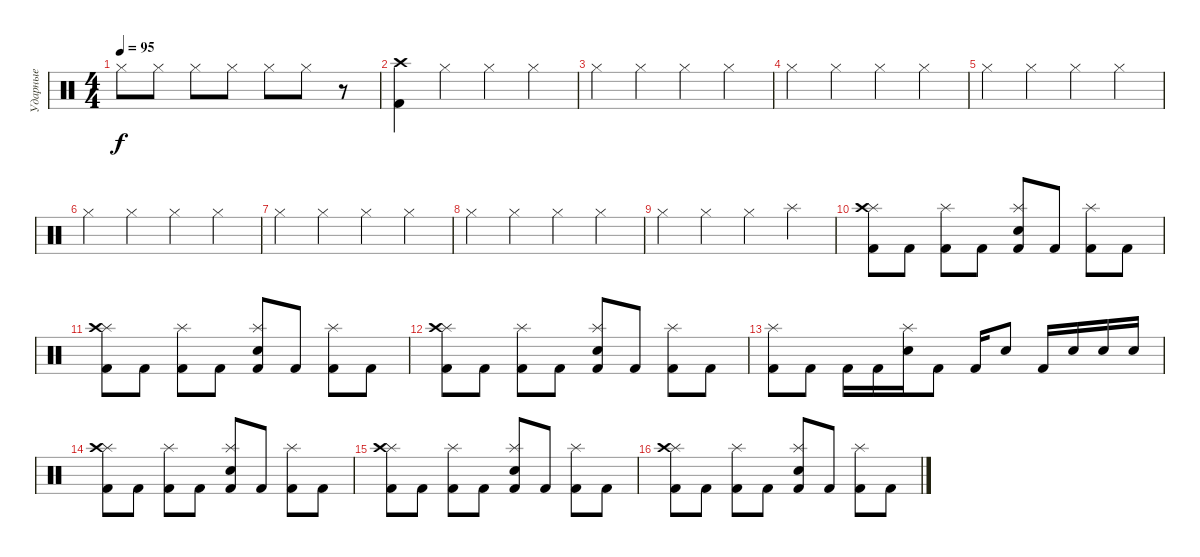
\track ("Ударные" "Ударные") {instrument percussion}
\staff {score}
\articulation defaults
\ts (4 4)
\tempo 95
\clef neutral
\ks c "Hi-Hat (closed)".8{dy f} "Hi-Hat (closed)".8 "Hi-Hat (closed)".8 "Hi-Hat (closed)".8 "Hi-Hat (closed)".8 "Hi-Hat (closed)".8
r.8 |
("Crash high (hit)" "Kick (hit) 2").4 "Hi-Hat (closed)".4 "Hi-Hat (closed)".4 "Hi-Hat (closed)".4 |
"Hi-Hat (closed)".4 "Hi-Hat (closed)".4 "Hi-Hat (closed)".4 "Hi-Hat (closed)".4 |
"Hi-Hat (closed)".4 "Hi-Hat (closed)".4 "Hi-Hat (closed)".4 "Hi-Hat (closed)".4 |
"Hi-Hat (closed)".4 "Hi-Hat (closed)".4 "Hi-Hat (closed)".4 "Hi-Hat (closed)".4 |
"Hi-Hat (closed)".4 "Hi-Hat (closed)".4 "Hi-Hat (closed)".4 "Hi-Hat (closed)".4 |
"Hi-Hat (closed)".4 "Hi-Hat (closed)".4 "Hi-Hat (closed)".4 "Hi-Hat (closed)".4 |
"Hi-Hat (closed)".4 "Hi-Hat (closed)".4 "Hi-Hat (closed)".4 "Hi-Hat (closed)".4 |
"Hi-Hat (closed)".4 "Hi-Hat (closed)".4 "Hi-Hat (closed)".4 "Splash (hit)".4 |
("Splash (hit)" "Crash high (hit)" "Kick (hit) 2").8 "Kick (hit) 2".8 ("Splash (hit)" "Kick (hit) 2").8 "Kick (hit) 2".8 ("Splash (hit)" "Electric Snare (hit)" "Kick (hit) 2").8 "Kick (hit) 2".8 ("Splash (hit)" "Kick (hit) 2").8 "Kick (hit) 2".8 |
("Splash (hit)" "Crash high (hit)" "Kick (hit) 2").8 "Kick (hit) 2".8 ("Splash (hit)" "Kick (hit) 2").8 "Kick (hit) 2".8 ("Splash (hit)" "Electric Snare (hit)" "Kick (hit) 2").8 "Kick (hit) 2".8 ("Splash (hit)" "Kick (hit) 2").8 "Kick (hit) 2".8 |
("Splash (hit)" "Crash high (hit)" "Kick (hit) 2").8 "Kick (hit) 2".8 ("Splash (hit)" "Kick (hit) 2").8 "Kick (hit) 2".8 ("Splash (hit)" "Electric Snare (hit)" "Kick (hit) 2").8 "Kick (hit) 2".8 ("Splash (hit)" "Kick (hit) 2").8 "Kick (hit) 2".8 |
("Splash (hit)" "Kick (hit) 2").8 "Kick (hit) 2".8 "Kick (hit) 2".16 "Kick (hit) 2".16 ("Splash (hit)" "Electric Snare (hit)").16 "Kick (hit) 2".8 "Kick (hit) 2".16 "Electric Snare (hit)".8 "Kick (hit) 2".16 "Electric Snare (hit)".16 "Electric Snare (hit)".16 "Electric Snare (hit)".16 |
("Splash (hit)" "Crash high (hit)" "Kick (hit) 2").8 "Kick (hit) 2".8 ("Splash (hit)" "Kick (hit) 2").8 "Kick (hit) 2".8 ("Splash (hit)" "Electric Snare (hit)" "Kick (hit) 2").8 "Kick (hit) 2".8 ("Splash (hit)" "Kick (hit) 2").8 "Kick (hit) 2".8 |
("Splash (hit)" "Crash high (hit)" "Kick (hit) 2").8 "Kick (hit) 2".8 ("Splash (hit)" "Kick (hit) 2").8 "Kick (hit) 2".8 ("Splash (hit)" "Electric Snare (hit)" "Kick (hit) 2").8 "Kick (hit) 2".8 ("Splash (hit)" "Kick (hit) 2").8 "Kick (hit) 2".8 |
("Splash (hit)" "Crash high (hit)" "Kick (hit) 2").8 "Kick (hit) 2".8 ("Splash (hit)" "Kick (hit) 2").8 "Kick (hit) 2".8 ("Splash (hit)" "Electric Snare (hit)" "Kick (hit) 2").8 "Kick (hit) 2".8 ("Splash (hit)" "Kick (hit) 2").8 "Kick (hit) 2".8
